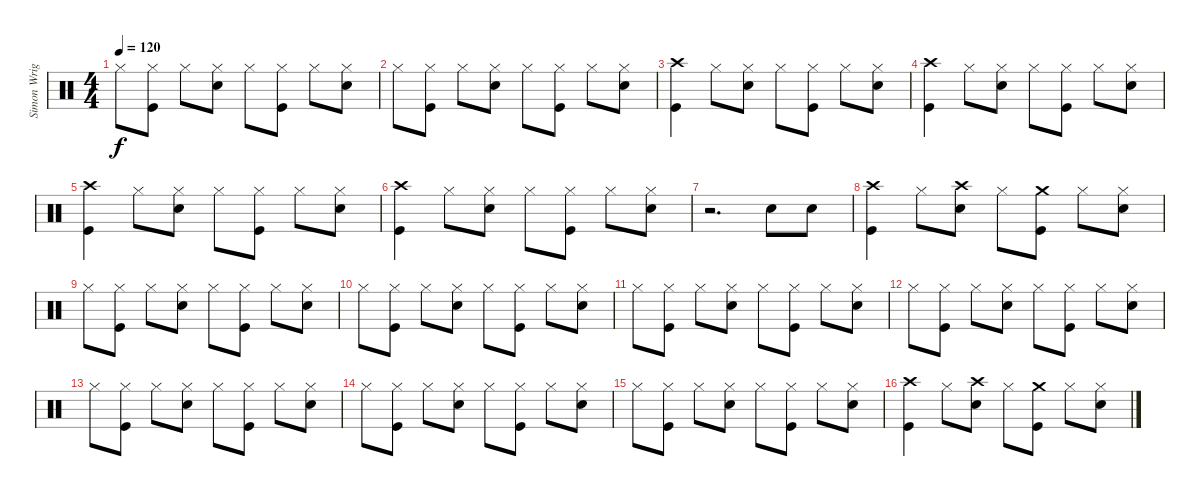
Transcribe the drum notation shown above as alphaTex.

\track ("Simon Wright" "Simon Wrig") {instrument percussion}
\staff {score}
\articulation defaults
\ts (4 4)
\tempo 120
\clef neutral
\ks c "Hi-Hat (closed)".8{dy f}
("Hi-Hat (closed)" "Kick (hit)").8 "Hi-Hat (closed)".8 ("Hi-Hat (closed)" "Electric Snare (hit)").8 "Hi-Hat (closed)".8 ("Hi-Hat (closed)" "Kick (hit)").8 "Hi-Hat (closed)".8 ("Hi-Hat (closed)" "Electric Snare (hit)").8 |
"Hi-Hat (closed)".8 ("Hi-Hat (closed)" "Kick (hit)").8 "Hi-Hat (closed)".8 ("Hi-Hat (closed)" "Electric Snare (hit)").8 "Hi-Hat (closed)".8 ("Hi-Hat (closed)" "Kick (hit)").8 "Hi-Hat (closed)".8 ("Hi-Hat (closed)" "Electric Snare (hit)").8 |
("Crash high (hit)" "Kick (hit)").4 "Hi-Hat (closed)".8 ("Hi-Hat (closed)" "Electric Snare (hit)").8 "Hi-Hat (closed)".8 ("Hi-Hat (closed)" "Kick (hit)").8 "Hi-Hat (closed)".8 ("Hi-Hat (closed)" "Electric Snare (hit)").8 |
("Crash high (hit)" "Kick (hit)").4 "Hi-Hat (closed)".8 ("Hi-Hat (closed)" "Electric Snare (hit)").8 "Hi-Hat (closed)".8 ("Hi-Hat (closed)" "Kick (hit)").8 "Hi-Hat (closed)".8 ("Hi-Hat (closed)" "Electric Snare (hit)").8 |
("Crash high (hit)" "Kick (hit)").4 "Hi-Hat (closed)".8 ("Hi-Hat (closed)" "Electric Snare (hit)").8 "Hi-Hat (closed)".8 ("Hi-Hat (closed)" "Kick (hit)").8 "Hi-Hat (closed)".8 ("Hi-Hat (closed)" "Electric Snare (hit)").8 |
("Crash high (hit)" "Kick (hit)").4 "Hi-Hat (closed)".8 ("Hi-Hat (closed)" "Electric Snare (hit)").8 "Hi-Hat (closed)".8 ("Hi-Hat (closed)" "Kick (hit)").8 "Hi-Hat (closed)".8 ("Hi-Hat (closed)" "Electric Snare (hit)").8 |
r.2{d} "Electric Snare (hit)".8 "Electric Snare (hit)".8 |
("Crash high (hit)" "Kick (hit)").4 "Hi-Hat (closed)".8 ("Crash high (hit)" "Electric Snare (hit)").8 "Hi-Hat (closed)".8 ("Crash medium (hit)" "Kick (hit)").8 "Hi-Hat (closed)".8 ("Hi-Hat (closed)" "Electric Snare (hit)").8 |
"Hi-Hat (closed)".8 ("Hi-Hat (closed)" "Kick (hit)").8 "Hi-Hat (closed)".8 ("Hi-Hat (closed)" "Electric Snare (hit)").8 "Hi-Hat (closed)".8 ("Hi-Hat (closed)" "Kick (hit)").8 "Hi-Hat (closed)".8 ("Hi-Hat (closed)" "Electric Snare (hit)").8 |
"Hi-Hat (closed)".8 ("Hi-Hat (closed)" "Kick (hit)").8 "Hi-Hat (closed)".8 ("Hi-Hat (closed)" "Electric Snare (hit)").8 "Hi-Hat (closed)".8 ("Hi-Hat (closed)" "Kick (hit)").8 "Hi-Hat (closed)".8 ("Hi-Hat (closed)" "Electric Snare (hit)").8 |
"Hi-Hat (closed)".8 ("Hi-Hat (closed)" "Kick (hit)").8 "Hi-Hat (closed)".8 ("Hi-Hat (closed)" "Electric Snare (hit)").8 "Hi-Hat (closed)".8 ("Hi-Hat (closed)" "Kick (hit)").8 "Hi-Hat (closed)".8 ("Hi-Hat (closed)" "Electric Snare (hit)").8 |
"Hi-Hat (closed)".8 ("Hi-Hat (closed)" "Kick (hit)").8 "Hi-Hat (closed)".8 ("Hi-Hat (closed)" "Electric Snare (hit)").8 "Hi-Hat (closed)".8 ("Hi-Hat (closed)" "Kick (hit)").8 "Hi-Hat (closed)".8 ("Hi-Hat (closed)" "Electric Snare (hit)").8 |
"Hi-Hat (closed)".8 ("Hi-Hat (closed)" "Kick (hit)").8 "Hi-Hat (closed)".8 ("Hi-Hat (closed)" "Electric Snare (hit)").8 "Hi-Hat (closed)".8 ("Hi-Hat (closed)" "Kick (hit)").8 "Hi-Hat (closed)".8 ("Hi-Hat (closed)" "Electric Snare (hit)").8 |
"Hi-Hat (closed)".8 ("Hi-Hat (closed)" "Kick (hit)").8 "Hi-Hat (closed)".8 ("Hi-Hat (closed)" "Electric Snare (hit)").8 "Hi-Hat (closed)".8 ("Hi-Hat (closed)" "Kick (hit)").8 "Hi-Hat (closed)".8 ("Hi-Hat (closed)" "Electric Snare (hit)").8 |
"Hi-Hat (closed)".8 ("Hi-Hat (closed)" "Kick (hit)").8 "Hi-Hat (closed)".8 ("Hi-Hat (closed)" "Electric Snare (hit)").8 "Hi-Hat (closed)".8 ("Hi-Hat (closed)" "Kick (hit)").8 "Hi-Hat (closed)".8 ("Hi-Hat (closed)" "Electric Snare (hit)").8 |
("Crash high (hit)" "Kick (hit)").4 "Hi-Hat (closed)".8 ("Crash high (hit)" "Electric Snare (hit)").8 "Hi-Hat (closed)".8 ("Crash medium (hit)" "Kick (hit)").8 "Hi-Hat (closed)".8 ("Hi-Hat (closed)" "Electric Snare (hit)").8
